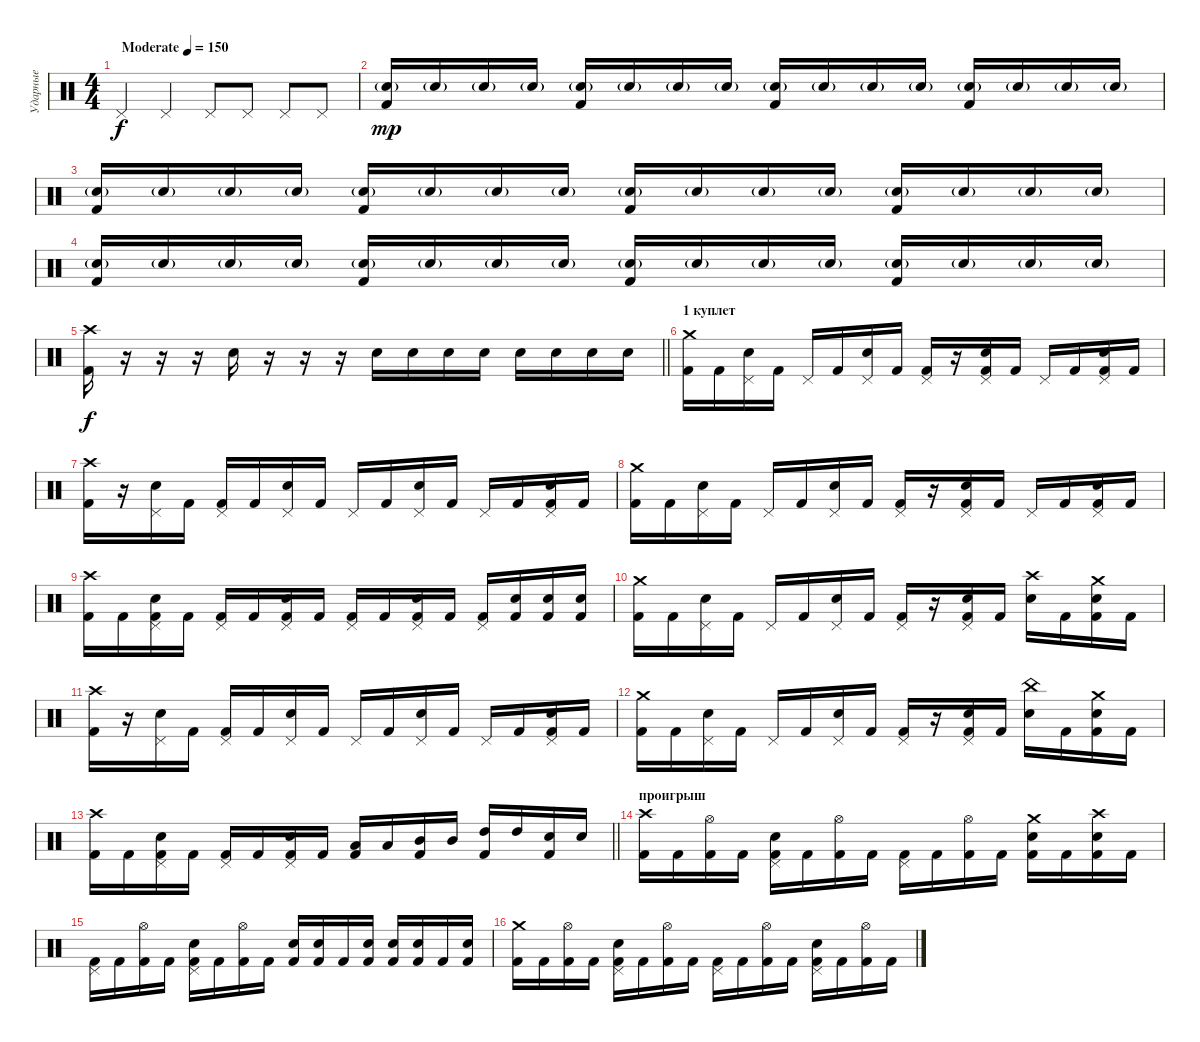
\track ("Ударные" "Ударные") {instrument percussion}
\staff {score}
\articulation defaults
\ts (4 4)
\tempo (150 "Moderate")
\clef neutral
\ks c "Pedal Hi-Hat (hit)".4{dy f} "Pedal Hi-Hat (hit)".4 "Pedal Hi-Hat (hit)".8 "Pedal Hi-Hat (hit)".8 "Pedal Hi-Hat (hit)".8 "Pedal Hi-Hat (hit)".8
|
("Snare (hit) 2"{g} "Kick (hit) 2").16{dy mp} "Snare (hit) 2"{g}.16 "Snare (hit) 2"{g}.16 "Snare (hit) 2"{g}.16 ("Snare (hit) 2"{g} "Kick (hit) 2").16 "Snare (hit) 2"{g}.16 "Snare (hit) 2"{g}.16 "Snare (hit) 2"{g}.16 ("Snare (hit) 2"{g} "Kick (hit) 2").16 "Snare (hit) 2"{g}.16 "Snare (hit) 2"{g}.16 "Snare (hit) 2"{g}.16 ("Snare (hit) 2"{g} "Kick (hit) 2").16 "Snare (hit) 2"{g}.16 "Snare (hit) 2"{g}.16 "Snare (hit) 2"{g}.16 |
("Snare (hit) 2"{g} "Kick (hit) 2").16 "Snare (hit) 2"{g}.16 "Snare (hit) 2"{g}.16 "Snare (hit) 2"{g}.16 ("Snare (hit) 2"{g} "Kick (hit) 2").16 "Snare (hit) 2"{g}.16 "Snare (hit) 2"{g}.16 "Snare (hit) 2"{g}.16 ("Snare (hit) 2"{g} "Kick (hit) 2").16 "Snare (hit) 2"{g}.16 "Snare (hit) 2"{g}.16 "Snare (hit) 2"{g}.16 ("Snare (hit) 2"{g} "Kick (hit) 2").16 "Snare (hit) 2"{g}.16 "Snare (hit) 2"{g}.16 "Snare (hit) 2"{g}.16 |
("Snare (hit) 2"{g} "Kick (hit) 2").16 "Snare (hit) 2"{g}.16 "Snare (hit) 2"{g}.16 "Snare (hit) 2"{g}.16 ("Snare (hit) 2"{g} "Kick (hit) 2").16 "Snare (hit) 2"{g}.16 "Snare (hit) 2"{g}.16 "Snare (hit) 2"{g}.16 ("Snare (hit) 2"{g} "Kick (hit) 2").16 "Snare (hit) 2"{g}.16 "Snare (hit) 2"{g}.16 "Snare (hit) 2"{g}.16 ("Snare (hit) 2"{g} "Kick (hit) 2").16 "Snare (hit) 2"{g}.16 "Snare (hit) 2"{g}.16 "Snare (hit) 2"{g}.16 |
\barLineRight lightlight
("Crash high (hit)" "Kick (hit) 2").16{dy f} r.16 r.16 r.16 "Snare (hit) 2".16 r.16 r.16 r.16 "Snare (hit) 2".16{volume 5} "Snare (hit) 2".16{volume 6} "Snare (hit) 2".16{volume 7} "Snare (hit) 2".16{volume 8} "Snare (hit) 2".16{volume 9} "Snare (hit) 2".16{volume 10} "Snare (hit) 2".16{volume 11} "Snare (hit) 2".16 |
\section ("" "1 куплет")
("Crash medium (hit)" "Kick (hit) 2").16 "Kick (hit) 2".16 ("Pedal Hi-Hat (hit)" "Snare (hit) 2").16 "Kick (hit) 2".16 "Pedal Hi-Hat (hit)".16 "Kick (hit) 2".16 ("Pedal Hi-Hat (hit)" "Snare (hit) 2").16 "Kick (hit) 2".16 ("Pedal Hi-Hat (hit)" "Kick (hit) 2").16 r.16 ("Pedal Hi-Hat (hit)" "Snare (hit) 2" "Kick (hit) 2").16 "Kick (hit) 2".16 "Pedal Hi-Hat (hit)".16 "Kick (hit) 2".16 ("Pedal Hi-Hat (hit)" "Snare (hit) 2" "Kick (hit) 2").16 "Kick (hit) 2".16 |
("Crash high (hit)" "Kick (hit) 2").16 r.16 ("Pedal Hi-Hat (hit)" "Snare (hit) 2").16 "Kick (hit) 2".16 ("Pedal Hi-Hat (hit)" "Kick (hit) 2").16 "Kick (hit) 2".16 ("Pedal Hi-Hat (hit)" "Snare (hit) 2").16 "Kick (hit) 2".16 "Pedal Hi-Hat (hit)".16 "Kick (hit) 2".16 ("Pedal Hi-Hat (hit)" "Snare (hit) 2").16 "Kick (hit) 2".16 "Pedal Hi-Hat (hit)".16 "Kick (hit) 2".16 ("Pedal Hi-Hat (hit)" "Snare (hit) 2" "Kick (hit) 2").16 "Kick (hit) 2".16 |
("Crash medium (hit)" "Kick (hit) 2").16 "Kick (hit) 2".16 ("Pedal Hi-Hat (hit)" "Snare (hit) 2").16 "Kick (hit) 2".16 "Pedal Hi-Hat (hit)".16 "Kick (hit) 2".16 ("Pedal Hi-Hat (hit)" "Snare (hit) 2").16 "Kick (hit) 2".16 ("Pedal Hi-Hat (hit)" "Kick (hit) 2").16 r.16 ("Pedal Hi-Hat (hit)" "Snare (hit) 2" "Kick (hit) 2").16 "Kick (hit) 2".16 "Pedal Hi-Hat (hit)".16 "Kick (hit) 2".16 ("Pedal Hi-Hat (hit)" "Snare (hit) 2" "Kick (hit) 2").16 "Kick (hit) 2".16 |
("Crash high (hit)" "Kick (hit) 2").16 "Kick (hit) 2".16 ("Pedal Hi-Hat (hit)" "Snare (hit) 2" "Kick (hit) 2").16 "Kick (hit) 2".16 ("Pedal Hi-Hat (hit)" "Kick (hit) 2").16 "Kick (hit) 2".16 ("Pedal Hi-Hat (hit)" "Snare (hit) 2" "Kick (hit) 2").16 "Kick (hit) 2".16 ("Pedal Hi-Hat (hit)" "Kick (hit) 2").16 "Kick (hit) 2".16 ("Pedal Hi-Hat (hit)" "Snare (hit) 2" "Kick (hit) 2").16 "Kick (hit) 2".16 ("Pedal Hi-Hat (hit)" "Kick (hit) 2").16 ("Snare (hit) 2" "Kick (hit) 2").16 ("Snare (hit) 2" "Kick (hit) 2").16 ("Snare (hit) 2" "Kick (hit) 2").16 |
("Crash medium (hit)" "Kick (hit) 2").16 "Kick (hit) 2".16 ("Pedal Hi-Hat (hit)" "Snare (hit) 2").16 "Kick (hit) 2".16 "Pedal Hi-Hat (hit)".16 "Kick (hit) 2".16 ("Pedal Hi-Hat (hit)" "Snare (hit) 2").16 "Kick (hit) 2".16 ("Pedal Hi-Hat (hit)" "Kick (hit) 2").16 r.16 ("Pedal Hi-Hat (hit)" "Snare (hit) 2" "Kick (hit) 2").16 "Kick (hit) 2".16 ("Crash high (hit)" "Snare (hit) 2").16 "Kick (hit) 2".16 ("Crash medium (hit)" "Snare (hit) 2" "Kick (hit) 2").16 "Kick (hit) 2".16 |
("Crash high (hit)" "Kick (hit) 2").16 r.16 ("Pedal Hi-Hat (hit)" "Snare (hit) 2").16 "Kick (hit) 2".16 ("Pedal Hi-Hat (hit)" "Kick (hit) 2").16 "Kick (hit) 2".16 ("Pedal Hi-Hat (hit)" "Snare (hit) 2").16 "Kick (hit) 2".16 "Pedal Hi-Hat (hit)".16 "Kick (hit) 2".16 ("Pedal Hi-Hat (hit)" "Snare (hit) 2").16 "Kick (hit) 2".16 "Pedal Hi-Hat (hit)".16 "Kick (hit) 2".16 ("Pedal Hi-Hat (hit)" "Snare (hit) 2" "Kick (hit) 2").16 "Kick (hit) 2".16 |
("Crash medium (hit)" "Kick (hit) 2").16 "Kick (hit) 2".16 ("Pedal Hi-Hat (hit)" "Snare (hit) 2").16 "Kick (hit) 2".16 "Pedal Hi-Hat (hit)".16 "Kick (hit) 2".16 ("Pedal Hi-Hat (hit)" "Snare (hit) 2").16 "Kick (hit) 2".16 ("Pedal Hi-Hat (hit)" "Kick (hit) 2").16 r.16 ("Pedal Hi-Hat (hit)" "Snare (hit) 2" "Kick (hit) 2").16 "Kick (hit) 2".16 ("China (hit)" "Snare (hit) 2").16 "Kick (hit) 2".16 ("Crash medium (hit)" "Snare (hit) 2" "Kick (hit) 2").16 "Kick (hit) 2".16 |
\barLineRight lightlight
("Crash high (hit)" "Kick (hit) 2").16 "Kick (hit) 2".16 ("Pedal Hi-Hat (hit)" "Snare (hit) 2" "Kick (hit) 2").16 "Kick (hit) 2".16 ("Pedal Hi-Hat (hit)" "Kick (hit) 2").16 "Kick (hit) 2".16 ("Pedal Hi-Hat (hit)" "Snare (hit) 2" "Kick (hit) 2").16 "Kick (hit) 2".16 ("Low Tom (hit)" "Kick (hit) 2").16 "Low Tom (hit)".16 ("Mid Tom (hit)" "Kick (hit) 2").16 "Mid Tom (hit)".16 ("High Tom (hit)" "Kick (hit) 2").16 "High Tom (hit)".16 ("Snare (hit) 2" "Kick (hit) 2").16 "Snare (hit) 2".16 |
\section ("" "проигрыш")
("Crash high (hit)" "Kick (hit) 2").16 "Kick (hit) 2".16 ("Hi-Hat (open)" "Kick (hit) 2").16 "Kick (hit) 2".16 ("Pedal Hi-Hat (hit)" "Snare (hit) 2" "Kick (hit) 2").16 "Kick (hit) 2".16 ("Hi-Hat (open)" "Kick (hit) 2").16 "Kick (hit) 2".16 ("Pedal Hi-Hat (hit)" "Kick (hit) 2").16 "Kick (hit) 2".16 ("Hi-Hat (open)" "Kick (hit) 2").16 "Kick (hit) 2".16 ("Crash medium (hit)" "Snare (hit) 2" "Kick (hit) 2").16 "Kick (hit) 2".16 ("Crash high (hit)" "Snare (hit) 2" "Kick (hit) 2").16 "Kick (hit) 2".16 |
("Pedal Hi-Hat (hit)" "Kick (hit) 2").16 "Kick (hit) 2".16 ("Hi-Hat (open)" "Kick (hit) 2").16 "Kick (hit) 2".16 ("Pedal Hi-Hat (hit)" "Snare (hit) 2" "Kick (hit) 2").16 "Kick (hit) 2".16 ("Hi-Hat (open)" "Kick (hit) 2").16 "Kick (hit) 2".16 ("Snare (hit) 2" "Kick (hit) 2").16 ("Snare (hit) 2" "Kick (hit) 2").16 "Kick (hit) 2".16 ("Snare (hit) 2" "Kick (hit) 2").16 ("Snare (hit) 2" "Kick (hit) 2").16 ("Snare (hit) 2" "Kick (hit) 2").16 "Kick (hit) 2".16 ("Snare (hit) 2" "Kick (hit) 2").16 |
("Crash medium (hit)" "Kick (hit) 2").16 "Kick (hit) 2".16 ("Hi-Hat (open)" "Kick (hit) 2").16 "Kick (hit) 2".16 ("Pedal Hi-Hat (hit)" "Snare (hit) 2" "Kick (hit) 2").16 "Kick (hit) 2".16 ("Hi-Hat (open)" "Kick (hit) 2").16 "Kick (hit) 2".16 ("Pedal Hi-Hat (hit)" "Kick (hit) 2").16 "Kick (hit) 2".16 ("Hi-Hat (open)" "Kick (hit) 2").16 "Kick (hit) 2".16 ("Pedal Hi-Hat (hit)" "Snare (hit) 2" "Kick (hit) 2").16 "Kick (hit) 2".16 ("Hi-Hat (open)" "Kick (hit) 2").16 "Kick (hit) 2".16
